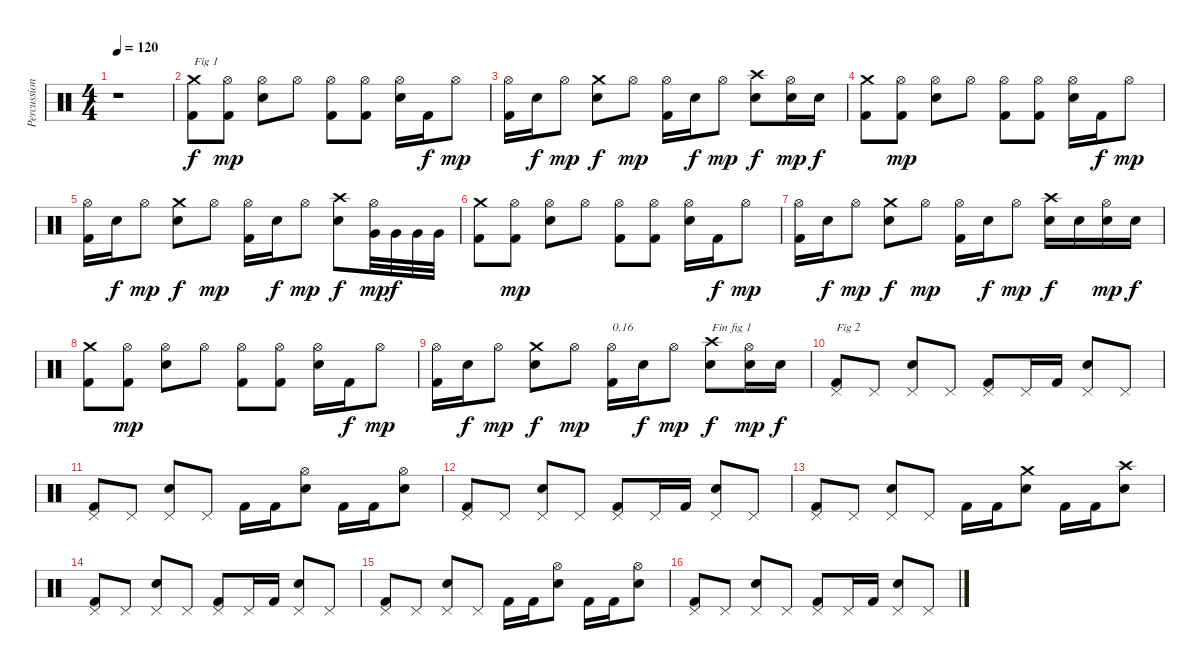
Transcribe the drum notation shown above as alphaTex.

\track ("Percussions" "Percussion") {instrument percussion}
\staff {score}
\articulation defaults
\ts (4 4)
\tempo 120
\clef neutral
\ks c
r.1{dy f} |
("Kick (hit) 2" "Crash medium (hit)").8{txt "Fig 1"} ("Kick (hit) 2" "Hi-Hat (open)").8{dy mp} ("Electric Snare (hit)" "Hi-Hat (open)").8 "Hi-Hat (open)".8 ("Kick (hit) 2" "Hi-Hat (open)").8 ("Kick (hit) 2" "Hi-Hat (open)").8 ("Electric Snare (hit)" "Hi-Hat (open)").16 "Kick (hit) 2".16{dy f} "Hi-Hat (open)".8{dy mp} |
("Kick (hit) 2" "Hi-Hat (open)").16 "Electric Snare (hit)".16{dy f} "Hi-Hat (open)".8{dy mp} ("Electric Snare (hit)" "Crash medium (hit)").8{dy f} "Hi-Hat (open)".8{dy mp} ("Kick (hit) 2" "Hi-Hat (open)").16 "Electric Snare (hit)".16{dy f} "Hi-Hat (open)".8{dy mp} ("Electric Snare (hit)" "Crash high (hit)").8{dy f} ("Electric Snare (hit)" "Hi-Hat (open)").16{dy mp} "Electric Snare (hit)".16{dy f} |
("Kick (hit) 2" "Crash medium (hit)").8 ("Kick (hit) 2" "Hi-Hat (open)").8{dy mp} ("Electric Snare (hit)" "Hi-Hat (open)").8 "Hi-Hat (open)".8 ("Kick (hit) 2" "Hi-Hat (open)").8 ("Kick (hit) 2" "Hi-Hat (open)").8 ("Electric Snare (hit)" "Hi-Hat (open)").16 "Kick (hit) 2".16{dy f} "Hi-Hat (open)".8{dy mp} |
("Kick (hit) 2" "Hi-Hat (open)").16 "Electric Snare (hit)".16{dy f} "Hi-Hat (open)".8{dy mp} ("Electric Snare (hit)" "Crash medium (hit)").8{dy f} "Hi-Hat (open)".8{dy mp} ("Kick (hit) 2" "Hi-Hat (open)").16 "Electric Snare (hit)".16{dy f} "Hi-Hat (open)".8{dy mp} ("Electric Snare (hit)" "Crash high (hit)").8{dy f} ("Very Low Tom (hit)" "Hi-Hat (open)").32{dy mp} "Very Low Tom (hit)".32{dy f} "Very Low Tom (hit)".32 "Very Low Tom (hit)".32 |
("Kick (hit) 2" "Crash medium (hit)").8 ("Kick (hit) 2" "Hi-Hat (open)").8{dy mp} ("Electric Snare (hit)" "Hi-Hat (open)").8 "Hi-Hat (open)".8 ("Kick (hit) 2" "Hi-Hat (open)").8 ("Kick (hit) 2" "Hi-Hat (open)").8 ("Electric Snare (hit)" "Hi-Hat (open)").16 "Kick (hit) 2".16{dy f} "Hi-Hat (open)".8{dy mp} |
("Kick (hit) 2" "Hi-Hat (open)").16 "Electric Snare (hit)".16{dy f} "Hi-Hat (open)".8{dy mp} ("Electric Snare (hit)" "Crash medium (hit)").8{dy f} "Hi-Hat (open)".8{dy mp} ("Kick (hit) 2" "Hi-Hat (open)").16 "Electric Snare (hit)".16{dy f} "Hi-Hat (open)".8{dy mp} ("Electric Snare (hit)" "Crash high (hit)").16{dy f} "Electric Snare (hit)".16 ("Electric Snare (hit)" "Hi-Hat (open)").16{dy mp} "Electric Snare (hit)".16{dy f} |
("Kick (hit) 2" "Crash medium (hit)").8 ("Kick (hit) 2" "Hi-Hat (open)").8{dy mp} ("Electric Snare (hit)" "Hi-Hat (open)").8 "Hi-Hat (open)".8 ("Kick (hit) 2" "Hi-Hat (open)").8 ("Kick (hit) 2" "Hi-Hat (open)").8 ("Electric Snare (hit)" "Hi-Hat (open)").16 "Kick (hit) 2".16{dy f} "Hi-Hat (open)".8{dy mp} |
("Kick (hit) 2" "Hi-Hat (open)").16 "Electric Snare (hit)".16{dy f} "Hi-Hat (open)".8{dy mp} ("Electric Snare (hit)" "Crash medium (hit)").8{dy f} "Hi-Hat (open)".8{dy mp} ("Kick (hit) 2" "Hi-Hat (open)").16{txt "0.16"} "Electric Snare (hit)".16{dy f} "Hi-Hat (open)".8{dy mp} ("Electric Snare (hit)" "Crash high (hit)").8{txt "Fin fig 1" dy f} ("Electric Snare (hit)" "Hi-Hat (open)").16{dy mp} "Electric Snare (hit)".16{dy f} |
("Kick (hit) 2" "Pedal Hi-Hat (hit)").8{txt "Fig 2"} "Pedal Hi-Hat (hit)".8 ("Electric Snare (hit)" "Pedal Hi-Hat (hit)").8 "Pedal Hi-Hat (hit)".8 ("Kick (hit) 2" "Pedal Hi-Hat (hit)").8 "Pedal Hi-Hat (hit)".16 "Kick (hit) 2".16 ("Electric Snare (hit)" "Pedal Hi-Hat (hit)").8 "Pedal Hi-Hat (hit)".8 |
("Kick (hit) 2" "Pedal Hi-Hat (hit)").8 "Pedal Hi-Hat (hit)".8 ("Electric Snare (hit)" "Pedal Hi-Hat (hit)").8 "Pedal Hi-Hat (hit)".8 "Kick (hit) 2".16 "Kick (hit) 2".16 ("Electric Snare (hit)" "Hi-Hat (open)").8 "Kick (hit) 2".16 "Kick (hit) 2".16 ("Electric Snare (hit)" "Hi-Hat (open)").8 |
("Kick (hit) 2" "Pedal Hi-Hat (hit)").8 "Pedal Hi-Hat (hit)".8 ("Electric Snare (hit)" "Pedal Hi-Hat (hit)").8 "Pedal Hi-Hat (hit)".8 ("Kick (hit) 2" "Pedal Hi-Hat (hit)").8 "Pedal Hi-Hat (hit)".16 "Kick (hit) 2".16 ("Electric Snare (hit)" "Pedal Hi-Hat (hit)").8 "Pedal Hi-Hat (hit)".8 |
("Kick (hit) 2" "Pedal Hi-Hat (hit)").8 "Pedal Hi-Hat (hit)".8 ("Electric Snare (hit)" "Pedal Hi-Hat (hit)").8 "Pedal Hi-Hat (hit)".8 "Kick (hit) 2".16 "Kick (hit) 2".16 ("Electric Snare (hit)" "Crash medium (hit)").8 "Kick (hit) 2".16 "Kick (hit) 2".16 ("Electric Snare (hit)" "Crash high (hit)").8 |
("Kick (hit) 2" "Pedal Hi-Hat (hit)").8 "Pedal Hi-Hat (hit)".8 ("Electric Snare (hit)" "Pedal Hi-Hat (hit)").8 "Pedal Hi-Hat (hit)".8 ("Kick (hit) 2" "Pedal Hi-Hat (hit)").8 "Pedal Hi-Hat (hit)".16 "Kick (hit) 2".16 ("Electric Snare (hit)" "Pedal Hi-Hat (hit)").8 "Pedal Hi-Hat (hit)".8 |
("Kick (hit) 2" "Pedal Hi-Hat (hit)").8 "Pedal Hi-Hat (hit)".8 ("Electric Snare (hit)" "Pedal Hi-Hat (hit)").8 "Pedal Hi-Hat (hit)".8 "Kick (hit) 2".16 "Kick (hit) 2".16 ("Electric Snare (hit)" "Hi-Hat (open)").8 "Kick (hit) 2".16 "Kick (hit) 2".16 ("Electric Snare (hit)" "Hi-Hat (open)").8 |
("Kick (hit) 2" "Pedal Hi-Hat (hit)").8 "Pedal Hi-Hat (hit)".8 ("Electric Snare (hit)" "Pedal Hi-Hat (hit)").8 "Pedal Hi-Hat (hit)".8 ("Kick (hit) 2" "Pedal Hi-Hat (hit)").8 "Pedal Hi-Hat (hit)".16 "Kick (hit) 2".16 ("Electric Snare (hit)" "Pedal Hi-Hat (hit)").8 "Pedal Hi-Hat (hit)".8
